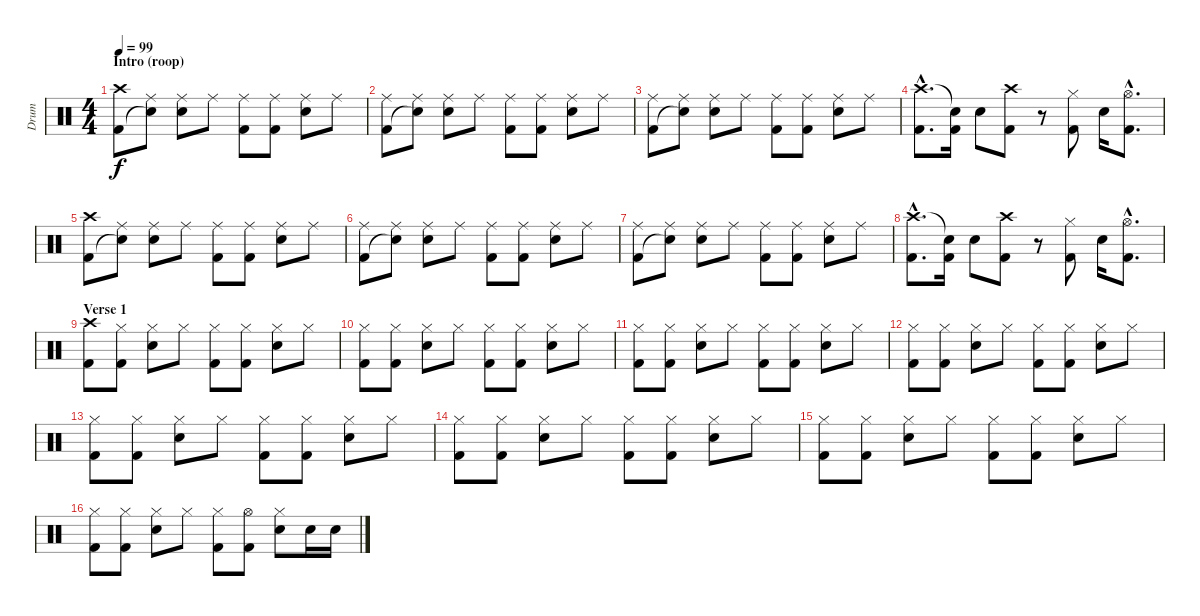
\track ("Drum" "Drum") {instrument percussion}
\staff {score}
\articulation defaults
\ts (4 4)
\section ("" "Intro (roop)")
\tempo 99
\clef neutral
\ks c
("Crash high (hit)" "Kick (hit) 2").8{dy f} ("Ride (middle)" "Snare (hit)"{t}).8 ("Ride (middle)" "Snare (hit) 2").8 "Ride (middle)".8 ("Ride (middle)" "Kick (hit) 2").8 ("Ride (middle)" "Kick (hit) 2").8 ("Ride (middle)" "Snare (hit) 2").8 "Ride (middle)".8 |
("Ride (middle)" "Kick (hit) 2").8 ("Ride (middle)" "Snare (hit)"{t}).8 ("Ride (middle)" "Snare (hit) 2").8 "Ride (middle)".8 ("Ride (middle)" "Kick (hit) 2").8 ("Ride (middle)" "Kick (hit) 2").8 ("Ride (middle)" "Snare (hit) 2").8 "Ride (middle)".8 |
("Ride (middle)" "Kick (hit) 2").8 ("Ride (middle)" "Snare (hit)"{t}).8 ("Ride (middle)" "Snare (hit) 2").8 "Ride (middle)".8 ("Ride (middle)" "Kick (hit) 2").8 ("Ride (middle)" "Kick (hit) 2").8 ("Ride (middle)" "Snare (hit) 2").8 "Ride (middle)".8 |
("Crash high (hit)"{hac} "Kick (hit) 2"{hac}).8{d} ("Snare (hit)"{t} "Kick (hit) 2").16 "Snare (hit) 2".8 ("Crash high (hit)" "Kick (hit) 2").8 r.8 ("Hi-Hat (closed)" "Kick (hit) 2").8 "Snare (hit) 2".16 ("Hi-Hat (open)"{hac} "Kick (hit) 2"{hac}).8{d} |
("Crash high (hit)" "Kick (hit) 2").8 ("Ride (middle)" "Snare (hit)"{t}).8 ("Ride (middle)" "Snare (hit) 2").8 "Ride (middle)".8 ("Ride (middle)" "Kick (hit) 2").8 ("Ride (middle)" "Kick (hit) 2").8 ("Ride (middle)" "Snare (hit) 2").8 "Ride (middle)".8 |
("Ride (middle)" "Kick (hit) 2").8 ("Ride (middle)" "Snare (hit)"{t}).8 ("Ride (middle)" "Snare (hit) 2").8 "Ride (middle)".8 ("Ride (middle)" "Kick (hit) 2").8 ("Ride (middle)" "Kick (hit) 2").8 ("Ride (middle)" "Snare (hit) 2").8 "Ride (middle)".8 |
("Ride (middle)" "Kick (hit) 2").8 ("Ride (middle)" "Snare (hit)"{t}).8 ("Ride (middle)" "Snare (hit) 2").8 "Ride (middle)".8 ("Ride (middle)" "Kick (hit) 2").8 ("Ride (middle)" "Kick (hit) 2").8 ("Ride (middle)" "Snare (hit) 2").8 "Ride (middle)".8 |
("Crash high (hit)"{hac} "Kick (hit) 2"{hac}).8{d} ("Snare (hit)"{t} "Kick (hit) 2").16 "Snare (hit) 2".8 ("Crash high (hit)" "Kick (hit) 2").8 r.8 ("Hi-Hat (closed)" "Kick (hit) 2").8 "Snare (hit) 2".16 ("Hi-Hat (open)"{hac} "Kick (hit) 2"{hac}).8{d} |
\section ("" "Verse 1")
("Crash high (hit)" "Kick (hit) 2").8 ("Hi-Hat (closed)" "Kick (hit) 2").8 ("Hi-Hat (closed)" "Snare (hit) 2").8 "Hi-Hat (closed)".8 ("Hi-Hat (closed)" "Kick (hit) 2").8 ("Hi-Hat (closed)" "Kick (hit) 2").8 ("Hi-Hat (closed)" "Snare (hit) 2").8 "Hi-Hat (closed)".8 |
("Hi-Hat (closed)" "Kick (hit) 2").8 ("Hi-Hat (closed)" "Kick (hit) 2").8 ("Hi-Hat (closed)" "Snare (hit) 2").8 "Hi-Hat (closed)".8 ("Hi-Hat (closed)" "Kick (hit) 2").8 ("Hi-Hat (closed)" "Kick (hit) 2").8 ("Hi-Hat (closed)" "Snare (hit) 2").8 "Hi-Hat (closed)".8 |
("Hi-Hat (closed)" "Kick (hit) 2").8 ("Hi-Hat (closed)" "Kick (hit) 2").8 ("Hi-Hat (closed)" "Snare (hit) 2").8 "Hi-Hat (closed)".8 ("Hi-Hat (closed)" "Kick (hit) 2").8 ("Hi-Hat (closed)" "Kick (hit) 2").8 ("Hi-Hat (closed)" "Snare (hit) 2").8 "Hi-Hat (closed)".8 |
("Hi-Hat (closed)" "Kick (hit) 2").8 ("Hi-Hat (closed)" "Kick (hit) 2").8 ("Hi-Hat (closed)" "Snare (hit) 2").8 "Hi-Hat (closed)".8 ("Hi-Hat (closed)" "Kick (hit) 2").8 ("Hi-Hat (closed)" "Kick (hit) 2").8 ("Hi-Hat (closed)" "Snare (hit) 2").8 "Hi-Hat (closed)".8 |
("Hi-Hat (closed)" "Kick (hit) 2").8 ("Hi-Hat (closed)" "Kick (hit) 2").8 ("Hi-Hat (closed)" "Snare (hit) 2").8 "Hi-Hat (closed)".8 ("Hi-Hat (closed)" "Kick (hit) 2").8 ("Hi-Hat (closed)" "Kick (hit) 2").8 ("Hi-Hat (closed)" "Snare (hit) 2").8 "Hi-Hat (closed)".8 |
("Hi-Hat (closed)" "Kick (hit) 2").8 ("Hi-Hat (closed)" "Kick (hit) 2").8 ("Hi-Hat (closed)" "Snare (hit) 2").8 "Hi-Hat (closed)".8 ("Hi-Hat (closed)" "Kick (hit) 2").8 ("Hi-Hat (closed)" "Kick (hit) 2").8 ("Hi-Hat (closed)" "Snare (hit) 2").8 "Hi-Hat (closed)".8 |
("Hi-Hat (closed)" "Kick (hit) 2").8 ("Hi-Hat (closed)" "Kick (hit) 2").8 ("Hi-Hat (closed)" "Snare (hit) 2").8 "Hi-Hat (closed)".8 ("Hi-Hat (closed)" "Kick (hit) 2").8 ("Hi-Hat (closed)" "Kick (hit) 2").8 ("Hi-Hat (closed)" "Snare (hit) 2").8 "Hi-Hat (closed)".8 |
("Hi-Hat (closed)" "Kick (hit) 2").8 ("Hi-Hat (closed)" "Kick (hit) 2").8 ("Hi-Hat (closed)" "Snare (hit) 2").8 "Hi-Hat (closed)".8 ("Hi-Hat (closed)" "Kick (hit) 2").8 ("Hi-Hat (open)" "Kick (hit) 2").8 ("Hi-Hat (closed)" "Snare (hit) 2").8 "Snare (hit) 2".16 "Snare (hit) 2".16
